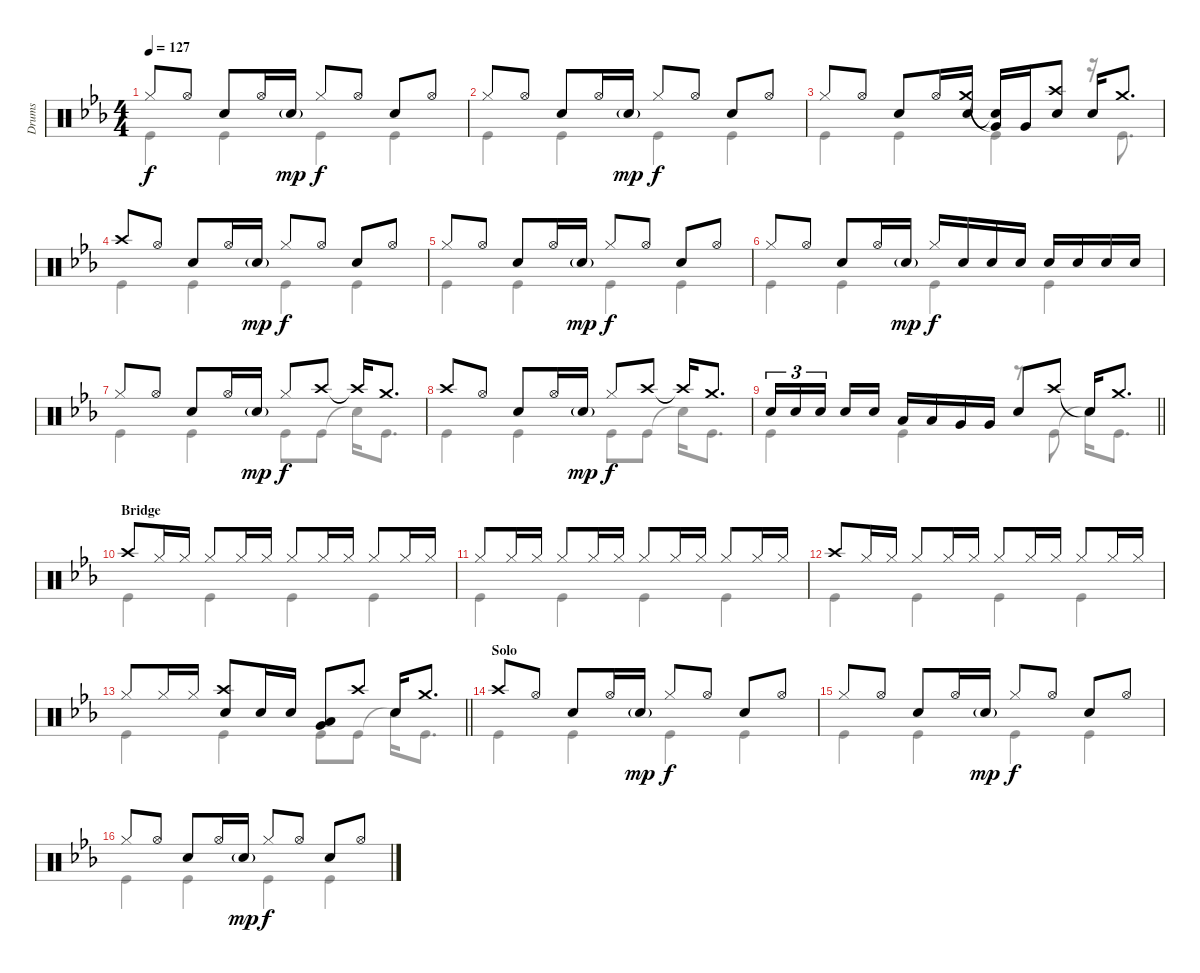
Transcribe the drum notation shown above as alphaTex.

\track ("Drums" "Drums") {instrument percussion}
\staff {score}
\articulation defaults
\voice
\ts (4 4)
\tempo 127
\clef neutral
\ks eb "Hi-Hat (closed)".8{dy f} "Hi-Hat (open)".8 "Snare (hit) 2".8 "Hi-Hat (open)".16 "Snare (hit) 2"{g}.16{dy mp} "Hi-Hat (closed)".8{dy f} "Hi-Hat (open)".8 "Snare (hit) 2".8 "Hi-Hat (open)".8
|
"Hi-Hat (closed)".8 "Hi-Hat (open)".8 "Snare (hit) 2".8 "Hi-Hat (open)".16 "Snare (hit) 2"{g}.16{dy mp} "Hi-Hat (closed)".8{dy f} "Hi-Hat (open)".8 "Snare (hit) 2".8 "Hi-Hat (open)".8 |
"Hi-Hat (closed)".8 "Hi-Hat (open)".8 "Snare (hit) 2".8 "Hi-Hat (open)".16 ("Crash medium (hit)" "Snare (hit) 2").16 ("Very Low Tom (hit)"{t} "Snare (hit)"{t}).16 "Very Low Tom (hit)".16 ("Crash high (hit)" "Snare (hit) 2").8 "Snare (hit) 2".16 "Crash medium (hit)".8{d} |
"Crash high (hit)".8 "Hi-Hat (open)".8 "Snare (hit) 2".8 "Hi-Hat (open)".16 "Snare (hit) 2"{g}.16{dy mp} "Hi-Hat (closed)".8{dy f} "Hi-Hat (open)".8 "Snare (hit) 2".8 "Hi-Hat (open)".8 |
"Hi-Hat (closed)".8 "Hi-Hat (open)".8 "Snare (hit) 2".8 "Hi-Hat (open)".16 "Snare (hit) 2"{g}.16{dy mp} "Hi-Hat (closed)".8{dy f} "Hi-Hat (open)".8 "Snare (hit) 2".8 "Hi-Hat (open)".8 |
"Hi-Hat (closed)".8 "Hi-Hat (open)".8 "Snare (hit) 2".8 "Hi-Hat (open)".16 "Snare (hit) 2"{g}.16{dy mp} "Hi-Hat (closed)".16{dy f} "Snare (hit) 2".16 "Snare (hit) 2".16 "Snare (hit) 2".16 "Snare (hit) 2".16 "Snare (hit) 2".16 "Snare (hit) 2".16 "Snare (hit) 2".16 |
"Hi-Hat (closed)".8 "Hi-Hat (open)".8 "Snare (hit) 2".8 "Hi-Hat (open)".16 "Snare (hit) 2"{g}.16{dy mp} "Hi-Hat (closed)".8{dy f} "Crash high (hit)".8 "Crash high (hit)"{t}.16 "Crash medium (hit)".8{d} |
"Crash high (hit)".8 "Hi-Hat (open)".8 "Snare (hit) 2".8 "Hi-Hat (open)".16 "Snare (hit) 2"{g}.16{dy mp} "Hi-Hat (closed)".8{dy f} "Crash high (hit)".8 "Crash high (hit)"{t}.16 "Crash medium (hit)".8{d} |
\barLineRight lightlight "Snare (hit) 2".16{tu (3 2)} "Snare (hit) 2".16{tu (3 2)} "Snare (hit) 2".16{tu (3 2) beam splitsecondary} "Snare (hit) 2".16 "Snare (hit) 2".16 "Low Tom (hit)".16 "Low Tom (hit)".16 "Very Low Tom (hit)".16 "Very Low Tom (hit)".16 "Snare (hit) 2".8 "Crash high (hit)".8 "Snare (hit)"{t}.16 "Crash medium (hit)".8{d}
|
\section ("" "Bridge")
"Crash high (hit)".8 "Hi-Hat (closed)".16 "Hi-Hat (closed)".16 "Hi-Hat (closed)".8 "Hi-Hat (closed)".16 "Hi-Hat (closed)".16 "Hi-Hat (closed)".8 "Hi-Hat (closed)".16 "Hi-Hat (closed)".16 "Hi-Hat (closed)".8 "Hi-Hat (closed)".16 "Hi-Hat (closed)".16 |
"Hi-Hat (closed)".8 "Hi-Hat (closed)".16 "Hi-Hat (closed)".16 "Hi-Hat (closed)".8 "Hi-Hat (closed)".16 "Hi-Hat (closed)".16 "Hi-Hat (closed)".8 "Hi-Hat (closed)".16 "Hi-Hat (closed)".16 "Hi-Hat (closed)".8 "Hi-Hat (closed)".16 "Hi-Hat (closed)".16 |
"Crash high (hit)".8 "Hi-Hat (closed)".16 "Hi-Hat (closed)".16 "Hi-Hat (closed)".8 "Hi-Hat (closed)".16 "Hi-Hat (closed)".16 "Hi-Hat (closed)".8 "Hi-Hat (closed)".16 "Hi-Hat (closed)".16 "Hi-Hat (closed)".8 "Hi-Hat (closed)".16 "Hi-Hat (closed)".16 |
\barLineRight lightlight "Hi-Hat (closed)".8 "Hi-Hat (closed)".16 "Hi-Hat (closed)".16
("Crash high (hit)" "Snare (hit) 2").8 "Snare (hit) 2".16 "Snare (hit) 2".16 ("Low Tom (hit)" "Very Low Tom (hit)").8 "Crash high (hit)".8 "Snare (hit) 2".16 "Crash medium (hit)".8{d} |
\section ("" "Solo")
"Crash high (hit)".8 "Hi-Hat (open)".8 "Snare (hit) 2".8 "Hi-Hat (open)".16 "Snare (hit) 2"{g}.16{dy mp} "Hi-Hat (closed)".8{dy f} "Hi-Hat (open)".8 "Snare (hit) 2".8 "Hi-Hat (open)".8 |
"Hi-Hat (closed)".8 "Hi-Hat (open)".8 "Snare (hit) 2".8 "Hi-Hat (open)".16 "Snare (hit) 2"{g}.16{dy mp} "Hi-Hat (closed)".8{dy f} "Hi-Hat (open)".8 "Snare (hit) 2".8 "Hi-Hat (open)".8 |
"Hi-Hat (closed)".8 "Hi-Hat (open)".8 "Snare (hit) 2".8 "Hi-Hat (open)".16 "Snare (hit) 2"{g}.16{dy mp} "Hi-Hat (closed)".8{dy f} "Hi-Hat (open)".8 "Snare (hit) 2".8 "Hi-Hat (open)".8
\voice
\clef neutral
\ottava regular
\simile none
\ks eb "Kick (hit)".4{dy f} "Kick (hit)".4 "Kick (hit)".4 "Kick (hit)".4
|
"Kick (hit)".4 "Kick (hit)".4 "Kick (hit)".4 "Kick (hit)".4 |
"Kick (hit)".4 "Kick (hit)".4 "Kick (hit)".4 r.16 "Kick (hit)".8{d} |
"Kick (hit)".4 "Kick (hit)".4 "Kick (hit)".4 "Kick (hit)".4 |
"Kick (hit)".4 "Kick (hit)".4 "Kick (hit)".4 "Kick (hit)".4 |
"Kick (hit)".4 "Kick (hit)".4 "Kick (hit)".4 "Kick (hit)".4 |
"Kick (hit)".4 "Kick (hit)".4 "Kick (hit)".8 "Kick (hit)".8 "Snare (hit)"{t}.16 "Kick (hit)".8{d} |
"Kick (hit)".4 "Kick (hit)".4 "Kick (hit)".8 "Kick (hit)".8 "Snare (hit)"{t}.16 "Kick (hit)".8{d} |
\barLineRight lightlight "Kick (hit)".4 "Kick (hit)".4
r.8 "Kick (hit)".8 "Snare (hit)"{t}.16 "Kick (hit)".8{d} |
"Kick (hit)".4 "Kick (hit)".4 "Kick (hit)".4 "Kick (hit)".4 |
"Kick (hit)".4 "Kick (hit)".4 "Kick (hit)".4 "Kick (hit)".4 |
"Kick (hit)".4 "Kick (hit)".4 "Kick (hit)".4 "Kick (hit)".4 |
\barLineRight lightlight "Kick (hit)".4 "Kick (hit)".4 "Kick (hit)".8 "Kick (hit)".8 "Snare (hit)"{t}.16 "Kick (hit)".8{d}
|
"Kick (hit)".4 "Kick (hit)".4 "Kick (hit)".4 "Kick (hit)".4 |
"Kick (hit)".4 "Kick (hit)".4 "Kick (hit)".4 "Kick (hit)".4 |
"Kick (hit)".4 "Kick (hit)".4 "Kick (hit)".4 "Kick (hit)".4
